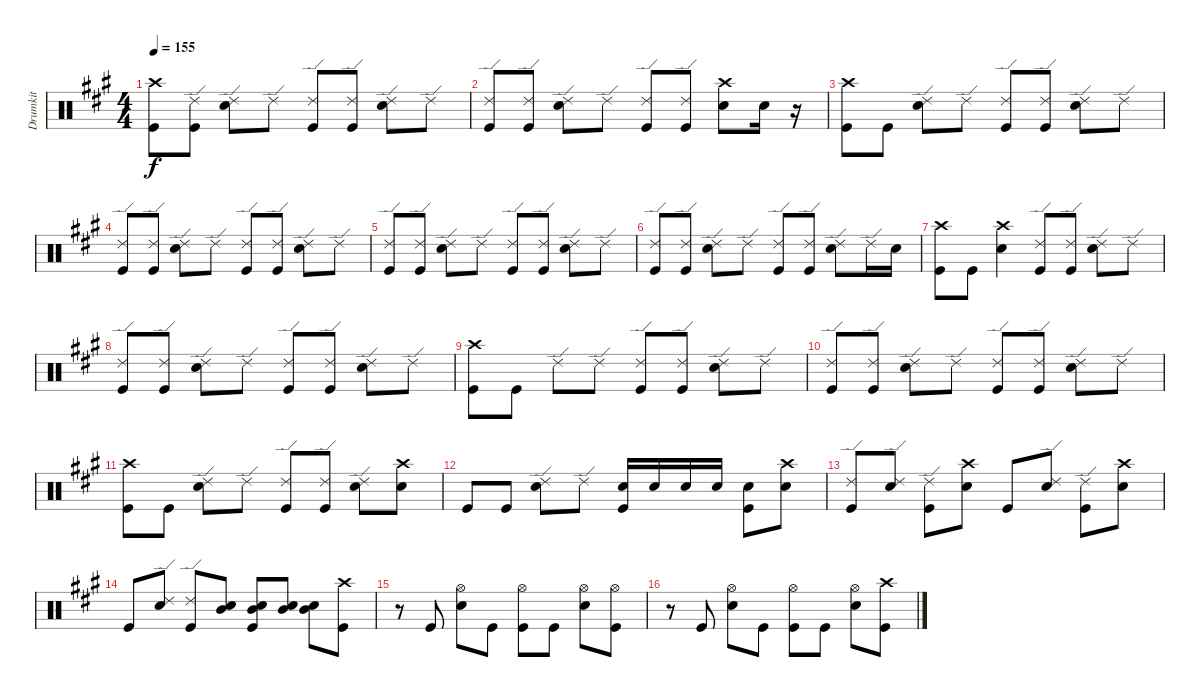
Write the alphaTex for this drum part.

\track ("Drumkit" "Drumkit") {instrument percussion}
\staff {score}
\articulation defaults
\ts (4 4)
\tempo 155
\clef neutral
\ks a
("Crash high (hit)" "Kick (hit)").8{dy f} ("Ride (edge) 2" "Kick (hit)").8 ("Ride (edge) 2" "Snare (hit) 2").8 "Ride (edge) 2".8 ("Ride (edge) 2" "Kick (hit)").8 ("Ride (edge) 2" "Kick (hit)").8 ("Ride (edge) 2" "Snare (hit) 2").8 "Ride (edge) 2".8 |
("Ride (edge) 2" "Kick (hit)").8 ("Ride (edge) 2" "Kick (hit)").8 ("Ride (edge) 2" "Snare (hit) 2").8 "Ride (edge) 2".8 ("Ride (edge) 2" "Kick (hit)").8 ("Ride (edge) 2" "Kick (hit)").8 ("Crash high (hit)" "Snare (hit) 2").8 "Snare (hit) 2".16 r.16 |
("Crash high (hit)" "Kick (hit)").8 "Kick (hit)".8 ("Ride (edge) 2" "Snare (hit) 2").8 "Ride (edge) 2".8 ("Ride (edge) 2" "Kick (hit)").8 ("Ride (edge) 2" "Kick (hit)").8 ("Ride (edge) 2" "Snare (hit) 2").8 "Ride (edge) 2".8 |
("Ride (edge) 2" "Kick (hit)").8 ("Ride (edge) 2" "Kick (hit)").8 ("Ride (edge) 2" "Snare (hit) 2").8 "Ride (edge) 2".8 ("Ride (edge) 2" "Kick (hit)").8 ("Ride (edge) 2" "Kick (hit)").8 ("Ride (edge) 2" "Snare (hit) 2").8 "Ride (edge) 2".8 |
("Ride (edge) 2" "Kick (hit)").8 ("Ride (edge) 2" "Kick (hit)").8 ("Ride (edge) 2" "Snare (hit) 2").8 "Ride (edge) 2".8 ("Ride (edge) 2" "Kick (hit)").8 ("Ride (edge) 2" "Kick (hit)").8 ("Ride (edge) 2" "Snare (hit) 2").8 "Ride (edge) 2".8 |
("Ride (edge) 2" "Kick (hit)").8 ("Ride (edge) 2" "Kick (hit)").8 ("Ride (edge) 2" "Snare (hit) 2").8 "Ride (edge) 2".8 ("Ride (edge) 2" "Kick (hit)").8 ("Ride (edge) 2" "Kick (hit)").8 ("Ride (edge) 2" "Snare (hit) 2").8 "Ride (edge) 2".16 "Snare (hit) 2".16 |
("Crash high (hit)" "Kick (hit)").8 "Kick (hit)".8 ("Crash high (hit)" "Snare (hit) 2").4 ("Ride (edge) 2" "Kick (hit)").8 ("Ride (edge) 2" "Kick (hit)").8 ("Ride (edge) 2" "Snare (hit) 2").8 "Ride (edge) 2".8 |
("Ride (edge) 2" "Kick (hit)").8 ("Ride (edge) 2" "Kick (hit)").8 ("Ride (edge) 2" "Snare (hit) 2").8 "Ride (edge) 2".8 ("Ride (edge) 2" "Kick (hit)").8 ("Ride (edge) 2" "Kick (hit)").8 ("Ride (edge) 2" "Snare (hit) 2").8 "Ride (edge) 2".8 |
("Crash high (hit)" "Kick (hit)").8 "Kick (hit)".8 "Ride (edge) 2".8 "Ride (edge) 2".8 ("Ride (edge) 2" "Kick (hit)").8 ("Ride (edge) 2" "Kick (hit)").8 ("Ride (edge) 2" "Snare (hit) 2").8 "Ride (edge) 2".8 |
("Ride (edge) 2" "Kick (hit)").8 ("Ride (edge) 2" "Kick (hit)").8 ("Ride (edge) 2" "Snare (hit) 2").8 "Ride (edge) 2".8 ("Ride (edge) 2" "Kick (hit)").8 ("Ride (edge) 2" "Kick (hit)").8 ("Ride (edge) 2" "Snare (hit) 2").8 "Ride (edge) 2".8 |
("Crash high (hit)" "Kick (hit)").8 "Kick (hit)".8 ("Ride (edge) 2" "Snare (hit) 2").8 "Ride (edge) 2".8 ("Ride (edge) 2" "Kick (hit)").8 ("Ride (edge) 2" "Kick (hit)").8 ("Ride (edge) 2" "Snare (hit) 2").8 ("Crash high (hit)" "Snare (hit) 2").8 |
"Kick (hit)".8 "Kick (hit)".8 ("Ride (edge) 2" "Snare (hit) 2").8 "Ride (edge) 2".8 ("Snare (hit) 2" "Kick (hit)").16 "Snare (hit) 2".16 "Snare (hit) 2".16 "Snare (hit) 2".16 ("Snare (hit) 2" "Kick (hit)").8 ("Crash high (hit)" "Snare (hit) 2").8 |
("Ride (edge) 2" "Kick (hit)").8 ("Ride (edge) 2" "Snare (hit) 2").8 ("Ride (edge) 2" "Kick (hit)").8 ("Crash high (hit)" "Snare (hit) 2").8 "Kick (hit)".8 ("Ride (edge) 2" "Snare (hit) 2").8 ("Ride (edge) 2" "Kick (hit)").8 ("Crash high (hit)" "Snare (hit) 2").8 |
"Kick (hit)".8 ("Ride (edge) 2" "Snare (hit) 2").8 ("Ride (edge) 2" "Kick (hit)").8 ("Mid Tom (hit)" "Snare (hit) 2").8 ("Mid Tom (hit)" "Snare (hit) 2" "Kick (hit)").8 ("Mid Tom (hit)" "Snare (hit) 2").8 ("Mid Tom (hit)" "Snare (hit) 2").8 ("Crash high (hit)" "Kick (hit)").8 |
r.8 "Kick (hit)".8 ("Hi-Hat (open)" "Snare (hit) 2").8 "Kick (hit)".8 ("Hi-Hat (open)" "Kick (hit)").8 "Kick (hit)".8 ("Hi-Hat (open)" "Snare (hit) 2").8 ("Hi-Hat (open)" "Kick (hit)").8 |
r.8 "Kick (hit)".8 ("Hi-Hat (open)" "Snare (hit) 2").8 "Kick (hit)".8 ("Hi-Hat (open)" "Kick (hit)").8 "Kick (hit)".8 ("Hi-Hat (open)" "Snare (hit) 2").8 ("Crash high (hit)" "Kick (hit)").8
